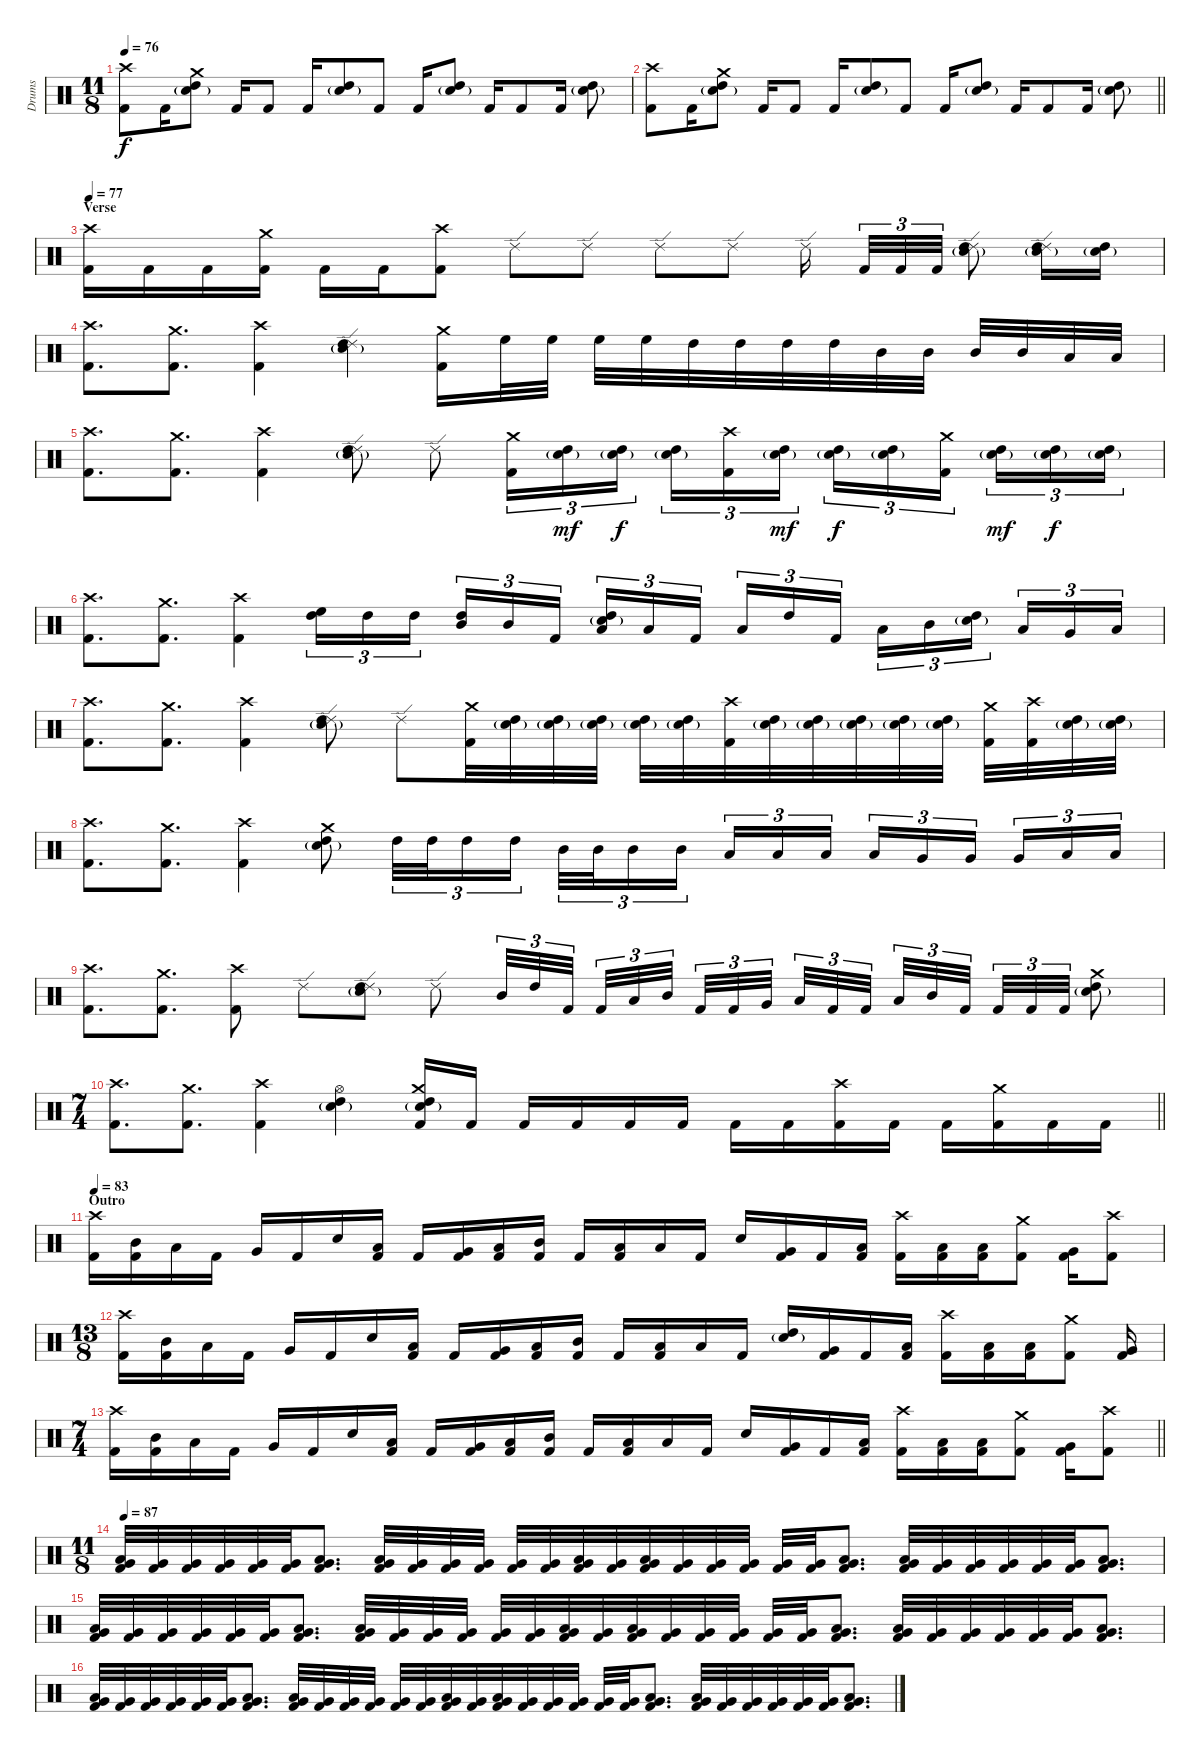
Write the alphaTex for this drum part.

\track ("Drums" "Drums") {instrument percussion}
\staff {score}
\articulation defaults
\ts (11 8)
\tempo 76
\clef neutral
\ks c
("Crash high (hit)" "Kick (hit) 2").8{dy f} "Kick (hit) 2".16 ("Crash medium (hit)" "High Tom (hit)" "Snare (hit) 2"{g}).8 "Kick (hit) 2".16 "Kick (hit) 2".8 "Kick (hit) 2".16 ("High Tom (hit)" "Snare (hit) 2"{g}).8 "Kick (hit) 2".8 "Kick (hit) 2".16 ("High Tom (hit)" "Snare (hit) 2"{g}).8 "Kick (hit) 2".16 "Kick (hit) 2".8 "Kick (hit) 2".16 ("High Tom (hit)" "Snare (hit) 2"{g}).8 |
\barLineRight lightlight
("Crash high (hit)" "Kick (hit) 2").8 "Kick (hit) 2".16 ("Crash medium (hit)" "High Tom (hit)" "Snare (hit) 2"{g}).8 "Kick (hit) 2".16 "Kick (hit) 2".8 "Kick (hit) 2".16 ("High Tom (hit)" "Snare (hit) 2"{g}).8 "Kick (hit) 2".8 "Kick (hit) 2".16 ("High Tom (hit)" "Snare (hit) 2"{g}).8 "Kick (hit) 2".16 "Kick (hit) 2".8 "Kick (hit) 2".16 ("High Tom (hit)" "Snare (hit) 2"{g}).8 |
\section ("" "Verse")
\tempo 77
("Crash high (hit)" "Kick (hit) 2").16 "Kick (hit) 2".16 "Kick (hit) 2".16 ("Crash medium (hit)" "Kick (hit) 2").16 "Kick (hit) 2".16 "Kick (hit) 2".16 ("Crash high (hit)" "Kick (hit) 2").8 "Ride (edge) 2".8 "Ride (edge) 2".8 "Ride (edge) 2".8 "Ride (edge) 2".8 "Ride (edge) 2".16{beam splitsecondary} "Kick (hit) 2".32{tu (3 2)} "Kick (hit) 2".32{tu (3 2)} "Kick (hit) 2".32{tu (3 2)} ("Ride (edge) 2" "High Tom (hit)" "Snare (hit) 2"{g}).8 ("Ride (edge) 2" "High Tom (hit)" "Snare (hit) 2"{g}).16 ("High Tom (hit)" "Snare (hit) 2"{g}).16 |
("Crash high (hit)" "Kick (hit) 2").8{d} ("Crash medium (hit)" "Kick (hit) 2").8{d} ("Crash high (hit)" "Kick (hit) 2").4 ("Ride (edge) 2" "High Tom (hit)" "Snare (hit) 2"{g}).4 ("Crash medium (hit)" "Kick (hit) 2").16 "High Floor Tom (hit)".32 "High Floor Tom (hit)".32 "High Floor Tom (hit)".32 "High Floor Tom (hit)".32 "High Tom (hit)".32 "High Tom (hit)".32 "High Tom (hit)".32 "High Tom (hit)".32 "Mid Tom (hit)".32 "Mid Tom (hit)".32 "Mid Tom (hit)".32 "Mid Tom (hit)".32 "Low Tom (hit)".32 "Low Tom (hit)".32 |
("Crash high (hit)" "Kick (hit) 2").8{d} ("Crash medium (hit)" "Kick (hit) 2").8{d} ("Crash high (hit)" "Kick (hit) 2").4 ("Ride (edge) 2" "High Tom (hit)" "Snare (hit) 2"{g}).8 "Ride (edge) 2".8 ("Crash medium (hit)" "Kick (hit) 2").16{tu (3 2)} ("High Tom (hit)" "Snare (hit) 2"{g}).16{tu (3 2) dy mf} ("High Tom (hit)" "Snare (hit) 2"{g}).16{tu (3 2) dy f} ("High Tom (hit)" "Snare (hit) 2"{g}).16{tu (3 2)} ("Crash high (hit)" "Kick (hit) 2").16{tu (3 2)} ("High Tom (hit)" "Snare (hit) 2"{g}).16{tu (3 2) dy mf} ("High Tom (hit)" "Snare (hit) 2"{g}).16{tu (3 2) dy f} ("High Tom (hit)" "Snare (hit) 2"{g}).16{tu (3 2)} ("Crash medium (hit)" "Kick (hit) 2").16{tu (3 2)} ("High Tom (hit)" "Snare (hit) 2"{g}).16{tu (3 2) dy mf} ("High Tom (hit)" "Snare (hit) 2"{g}).16{tu (3 2) dy f} ("High Tom (hit)" "Snare (hit) 2"{g}).16{tu (3 2)} |
("Crash high (hit)" "Kick (hit) 2").8{d} ("Crash medium (hit)" "Kick (hit) 2").8{d} ("Crash high (hit)" "Kick (hit) 2").4 ("High Floor Tom (hit)" "High Tom (hit)").16{tu (3 2)} "High Tom (hit)".16{tu (3 2)} "High Tom (hit)".16{tu (3 2)} ("High Tom (hit)" "Mid Tom (hit)").16{tu (3 2)} "Mid Tom (hit)".16{tu (3 2)} "Kick (hit) 2".16{tu (3 2)} ("High Tom (hit)" "Snare (hit) 2"{g} "Low Tom (hit)").16{tu (3 2)} "Low Tom (hit)".16{tu (3 2)} "Kick (hit) 2".16{tu (3 2)} "Low Tom (hit)".16{tu (3 2)} "High Tom (hit)".16{tu (3 2)} "Kick (hit) 2".16{tu (3 2)} "Low Tom (hit)".16{tu (3 2)} "Mid Tom (hit)".16{tu (3 2)} ("High Tom (hit)" "Snare (hit) 2"{g}).16{tu (3 2)} "Low Tom (hit)".16{tu (3 2)} "Very Low Tom (hit)".16{tu (3 2)} "Low Floor Tom (hit)".16{tu (3 2)} |
("Crash high (hit)" "Kick (hit) 2").8{d} ("Crash medium (hit)" "Kick (hit) 2").8{d} ("Crash high (hit)" "Kick (hit) 2").4 ("Ride (edge) 2" "High Tom (hit)" "Snare (hit) 2"{g}).8 "Ride (edge) 2".8 ("Crash medium (hit)" "Kick (hit) 2").32 ("High Tom (hit)" "Snare (hit) 2"{g}).32 ("High Tom (hit)" "Snare (hit) 2"{g}).32 ("High Tom (hit)" "Snare (hit) 2"{g}).32 ("High Tom (hit)" "Snare (hit) 2"{g}).32 ("High Tom (hit)" "Snare (hit) 2"{g}).32 ("Crash high (hit)" "Kick (hit) 2").32 ("High Tom (hit)" "Snare (hit) 2"{g}).32 ("High Tom (hit)" "Snare (hit) 2"{g}).32 ("High Tom (hit)" "Snare (hit) 2"{g}).32 ("High Tom (hit)" "Snare (hit) 2"{g}).32 ("High Tom (hit)" "Snare (hit) 2"{g}).32 ("Crash medium (hit)" "Kick (hit) 2").32 ("Crash high (hit)" "Kick (hit) 2").32 ("High Tom (hit)" "Snare (hit) 2"{g}).32 ("High Tom (hit)" "Snare (hit) 2"{g}).32 |
("Crash high (hit)" "Kick (hit) 2").8{d} ("Crash medium (hit)" "Kick (hit) 2").8{d} ("Crash high (hit)" "Kick (hit) 2").4 ("Crash medium (hit)" "High Tom (hit)" "Snare (hit) 2"{g}).8 "High Tom (hit)".32{tu (3 2)} "High Tom (hit)".32{tu (3 2)} "High Tom (hit)".16{tu (3 2)} "High Tom (hit)".16{tu (3 2)} "Mid Tom (hit)".32{tu (3 2)} "Mid Tom (hit)".32{tu (3 2)} "Mid Tom (hit)".16{tu (3 2)} "Mid Tom (hit)".16{tu (3 2)} "Low Tom (hit)".16{tu (3 2)} "Low Tom (hit)".16{tu (3 2)} "Low Tom (hit)".16{tu (3 2)} "Low Tom (hit)".16{tu (3 2)} "Very Low Tom (hit)".16{tu (3 2)} "Very Low Tom (hit)".16{tu (3 2)} "Very Low Tom (hit)".16{tu (3 2)} "Low Floor Tom (hit)".16{tu (3 2)} "Low Floor Tom (hit)".16{tu (3 2)} |
("Crash high (hit)" "Kick (hit) 2").8{d} ("Crash medium (hit)" "Kick (hit) 2").8{d} ("Crash high (hit)" "Kick (hit) 2").8 "Ride (edge) 2".8 ("Ride (edge) 2" "High Tom (hit)" "Snare (hit) 2"{g}).8 "Ride (edge) 2".8 "Mid Tom (hit)".32{tu (3 2)} "High Tom (hit)".32{tu (3 2)} "Kick (hit) 2".32{tu (3 2) beam splitsecondary} "Kick (hit) 2".32{tu (3 2)} "Low Tom (hit)".32{tu (3 2)} "Mid Tom (hit)".32{tu (3 2)} "Kick (hit) 2".32{tu (3 2)} "Kick (hit) 2".32{tu (3 2)} "Very Low Tom (hit)".32{tu (3 2) beam splitsecondary} "Low Tom (hit)".32{tu (3 2)} "Kick (hit) 2".32{tu (3 2)} "Kick (hit) 2".32{tu (3 2)} "Low Tom (hit)".32{tu (3 2)} "Mid Tom (hit)".32{tu (3 2)} "Kick (hit) 2".32{tu (3 2) beam splitsecondary} "Kick (hit) 2".32{tu (3 2)} "Kick (hit) 2".32{tu (3 2)} "Kick (hit) 2".32{tu (3 2)} ("Crash medium (hit)" "High Tom (hit)" "Snare (hit) 2"{g}).8 |
\ts (7 4)
\barLineRight lightlight
("Crash high (hit)" "Kick (hit) 2").8{d} ("Crash medium (hit)" "Kick (hit) 2").8{d} ("Crash high (hit)" "Kick (hit) 2").4 ("Hi-Hat (open)" "High Tom (hit)" "Snare (hit) 2"{g}).4 ("Crash medium (hit)" "High Tom (hit)" "Snare (hit) 2"{g} "Kick (hit) 2").16 "Kick (hit) 2".16 "Kick (hit) 2".16 "Kick (hit) 2".16 "Kick (hit) 2".16 "Kick (hit) 2".16 "Kick (hit) 2".16 "Kick (hit) 2".16 ("Crash high (hit)" "Kick (hit) 2").16 "Kick (hit) 2".16 "Kick (hit) 2".16 ("Crash medium (hit)" "Kick (hit) 2").16 "Kick (hit) 2".16 "Kick (hit) 2".16 |
\section ("" "Outro")
\tempo 83
("Crash high (hit)" "Kick (hit) 2").16 ("Mid Tom (hit)" "Kick (hit) 2").16 "Low Floor Tom (hit)".16 "Kick (hit) 2".16 "Very Low Tom (hit)".16 "Kick (hit) 2".16 "Snare (hit) 2".16 ("Low Tom (hit)" "Kick (hit) 2").16 "Kick (hit) 2".16 ("Very Low Tom (hit)" "Kick (hit) 2").16 ("Low Floor Tom (hit)" "Kick (hit) 2").16 ("Mid Tom (hit)" "Kick (hit) 2").16 "Kick (hit) 2".16 ("Low Tom (hit)" "Kick (hit) 2").16 "Low Floor Tom (hit)".16 "Kick (hit) 2".16 "Snare (hit) 2".16 ("Very Low Tom (hit)" "Kick (hit) 2").16 "Kick (hit) 2".16 ("Low Floor Tom (hit)" "Kick (hit) 2").16 ("Crash high (hit)" "Kick (hit) 2").16 ("Low Tom (hit)" "Kick (hit) 2").16 ("Low Tom (hit)" "Kick (hit) 2").16 ("Crash medium (hit)" "Kick (hit) 2").8 ("Very Low Tom (hit)" "Kick (hit) 2").16 ("Crash high (hit)" "Kick (hit) 2").8 |
\ts (13 8)
("Crash high (hit)" "Kick (hit) 2").16 ("Mid Tom (hit)" "Kick (hit) 2").16 "Low Floor Tom (hit)".16 "Kick (hit) 2".16 "Very Low Tom (hit)".16 "Kick (hit) 2".16 "Snare (hit) 2".16 ("Low Tom (hit)" "Kick (hit) 2").16 "Kick (hit) 2".16 ("Very Low Tom (hit)" "Kick (hit) 2").16 ("Low Floor Tom (hit)" "Kick (hit) 2").16 ("Mid Tom (hit)" "Kick (hit) 2").16 "Kick (hit) 2".16 ("Low Tom (hit)" "Kick (hit) 2").16 "Low Floor Tom (hit)".16 "Kick (hit) 2".16 ("High Tom (hit)" "Snare (hit) 2"{g}).16 ("Very Low Tom (hit)" "Kick (hit) 2").16 "Kick (hit) 2".16 ("Low Floor Tom (hit)" "Kick (hit) 2").16 ("Crash high (hit)" "Kick (hit) 2").16 ("Low Tom (hit)" "Kick (hit) 2").16 ("Low Tom (hit)" "Kick (hit) 2").16 ("Crash medium (hit)" "Kick (hit) 2").8 ("Very Low Tom (hit)" "Kick (hit) 2").16 |
\ts (7 4)
\barLineRight lightlight
("Crash high (hit)" "Kick (hit) 2").16 ("Mid Tom (hit)" "Kick (hit) 2").16 "Low Floor Tom (hit)".16 "Kick (hit) 2".16 "Very Low Tom (hit)".16 "Kick (hit) 2".16 "Snare (hit) 2".16 ("Low Tom (hit)" "Kick (hit) 2").16 "Kick (hit) 2".16 ("Very Low Tom (hit)" "Kick (hit) 2").16 ("Low Floor Tom (hit)" "Kick (hit) 2").16 ("Mid Tom (hit)" "Kick (hit) 2").16 "Kick (hit) 2".16 ("Low Tom (hit)" "Kick (hit) 2").16 "Low Floor Tom (hit)".16 "Kick (hit) 2".16 "Snare (hit) 2".16 ("Very Low Tom (hit)" "Kick (hit) 2").16 "Kick (hit) 2".16 ("Low Floor Tom (hit)" "Kick (hit) 2").16 ("Crash high (hit)" "Kick (hit) 2").16 ("Low Tom (hit)" "Kick (hit) 2").16 ("Low Tom (hit)" "Kick (hit) 2").16 ("Crash medium (hit)" "Kick (hit) 2").8 ("Very Low Tom (hit)" "Kick (hit) 2").16 ("Crash high (hit)" "Kick (hit) 2").8 |
\ts (11 8)
\section ("" "")
\tempo 87
("Very Low Tom (hit)" "Low Floor Tom (hit)" "Kick (hit) 2").32 ("Very Low Tom (hit)" "Kick (hit) 2").32 ("Very Low Tom (hit)" "Kick (hit) 2").32 ("Very Low Tom (hit)" "Kick (hit) 2").32 ("Very Low Tom (hit)" "Kick (hit) 2").32 ("Very Low Tom (hit)" "Kick (hit) 2").32 ("Very Low Tom (hit)" "Low Floor Tom (hit)" "Kick (hit) 2").8{d} ("Very Low Tom (hit)" "Low Floor Tom (hit)" "Kick (hit) 2").32 ("Very Low Tom (hit)" "Kick (hit) 2").32 ("Very Low Tom (hit)" "Kick (hit) 2").32 ("Very Low Tom (hit)" "Kick (hit) 2").32 ("Very Low Tom (hit)" "Kick (hit) 2").32 ("Very Low Tom (hit)" "Kick (hit) 2").32 ("Very Low Tom (hit)" "Low Floor Tom (hit)" "Kick (hit) 2").32 ("Very Low Tom (hit)" "Kick (hit) 2").32 ("Very Low Tom (hit)" "Low Floor Tom (hit)" "Kick (hit) 2").32 ("Very Low Tom (hit)" "Kick (hit) 2").32 ("Very Low Tom (hit)" "Kick (hit) 2").32 ("Very Low Tom (hit)" "Kick (hit) 2").32 ("Very Low Tom (hit)" "Kick (hit) 2").32 ("Very Low Tom (hit)" "Kick (hit) 2").32 ("Very Low Tom (hit)" "Low Floor Tom (hit)" "Kick (hit) 2").8{d} ("Very Low Tom (hit)" "Low Floor Tom (hit)" "Kick (hit) 2").32 ("Very Low Tom (hit)" "Kick (hit) 2").32 ("Very Low Tom (hit)" "Kick (hit) 2").32 ("Very Low Tom (hit)" "Kick (hit) 2").32 ("Very Low Tom (hit)" "Kick (hit) 2").32 ("Very Low Tom (hit)" "Kick (hit) 2").32 ("Very Low Tom (hit)" "Low Floor Tom (hit)" "Kick (hit) 2").8{d} |
("Very Low Tom (hit)" "Low Floor Tom (hit)" "Kick (hit) 2").32 ("Very Low Tom (hit)" "Kick (hit) 2").32 ("Very Low Tom (hit)" "Kick (hit) 2").32 ("Very Low Tom (hit)" "Kick (hit) 2").32 ("Very Low Tom (hit)" "Kick (hit) 2").32 ("Very Low Tom (hit)" "Kick (hit) 2").32 ("Very Low Tom (hit)" "Low Floor Tom (hit)" "Kick (hit) 2").8{d} ("Very Low Tom (hit)" "Low Floor Tom (hit)" "Kick (hit) 2").32 ("Very Low Tom (hit)" "Kick (hit) 2").32 ("Very Low Tom (hit)" "Kick (hit) 2").32 ("Very Low Tom (hit)" "Kick (hit) 2").32 ("Very Low Tom (hit)" "Kick (hit) 2").32 ("Very Low Tom (hit)" "Kick (hit) 2").32 ("Very Low Tom (hit)" "Low Floor Tom (hit)" "Kick (hit) 2").32 ("Very Low Tom (hit)" "Kick (hit) 2").32 ("Very Low Tom (hit)" "Low Floor Tom (hit)" "Kick (hit) 2").32 ("Very Low Tom (hit)" "Kick (hit) 2").32 ("Very Low Tom (hit)" "Kick (hit) 2").32 ("Very Low Tom (hit)" "Kick (hit) 2").32 ("Very Low Tom (hit)" "Kick (hit) 2").32 ("Very Low Tom (hit)" "Kick (hit) 2").32 ("Very Low Tom (hit)" "Low Floor Tom (hit)" "Kick (hit) 2").8{d} ("Very Low Tom (hit)" "Low Floor Tom (hit)" "Kick (hit) 2").32 ("Very Low Tom (hit)" "Kick (hit) 2").32 ("Very Low Tom (hit)" "Kick (hit) 2").32 ("Very Low Tom (hit)" "Kick (hit) 2").32 ("Very Low Tom (hit)" "Kick (hit) 2").32 ("Very Low Tom (hit)" "Kick (hit) 2").32 ("Very Low Tom (hit)" "Low Floor Tom (hit)" "Kick (hit) 2").8{d} |
("Very Low Tom (hit)" "Low Floor Tom (hit)" "Kick (hit) 2").32 ("Very Low Tom (hit)" "Kick (hit) 2").32 ("Very Low Tom (hit)" "Kick (hit) 2").32 ("Very Low Tom (hit)" "Kick (hit) 2").32 ("Very Low Tom (hit)" "Kick (hit) 2").32 ("Very Low Tom (hit)" "Kick (hit) 2").32 ("Very Low Tom (hit)" "Low Floor Tom (hit)" "Kick (hit) 2").8{d} ("Very Low Tom (hit)" "Low Floor Tom (hit)" "Kick (hit) 2").32 ("Very Low Tom (hit)" "Kick (hit) 2").32 ("Very Low Tom (hit)" "Kick (hit) 2").32 ("Very Low Tom (hit)" "Kick (hit) 2").32 ("Very Low Tom (hit)" "Kick (hit) 2").32 ("Very Low Tom (hit)" "Kick (hit) 2").32 ("Very Low Tom (hit)" "Low Floor Tom (hit)" "Kick (hit) 2").32 ("Very Low Tom (hit)" "Kick (hit) 2").32 ("Very Low Tom (hit)" "Low Floor Tom (hit)" "Kick (hit) 2").32 ("Very Low Tom (hit)" "Kick (hit) 2").32 ("Very Low Tom (hit)" "Kick (hit) 2").32 ("Very Low Tom (hit)" "Kick (hit) 2").32 ("Very Low Tom (hit)" "Kick (hit) 2").32 ("Very Low Tom (hit)" "Kick (hit) 2").32 ("Very Low Tom (hit)" "Low Floor Tom (hit)" "Kick (hit) 2").8{d} ("Very Low Tom (hit)" "Low Floor Tom (hit)" "Kick (hit) 2").32 ("Very Low Tom (hit)" "Kick (hit) 2").32 ("Very Low Tom (hit)" "Kick (hit) 2").32 ("Very Low Tom (hit)" "Kick (hit) 2").32 ("Very Low Tom (hit)" "Kick (hit) 2").32 ("Very Low Tom (hit)" "Kick (hit) 2").32 ("Very Low Tom (hit)" "Low Floor Tom (hit)" "Kick (hit) 2").8{d}
